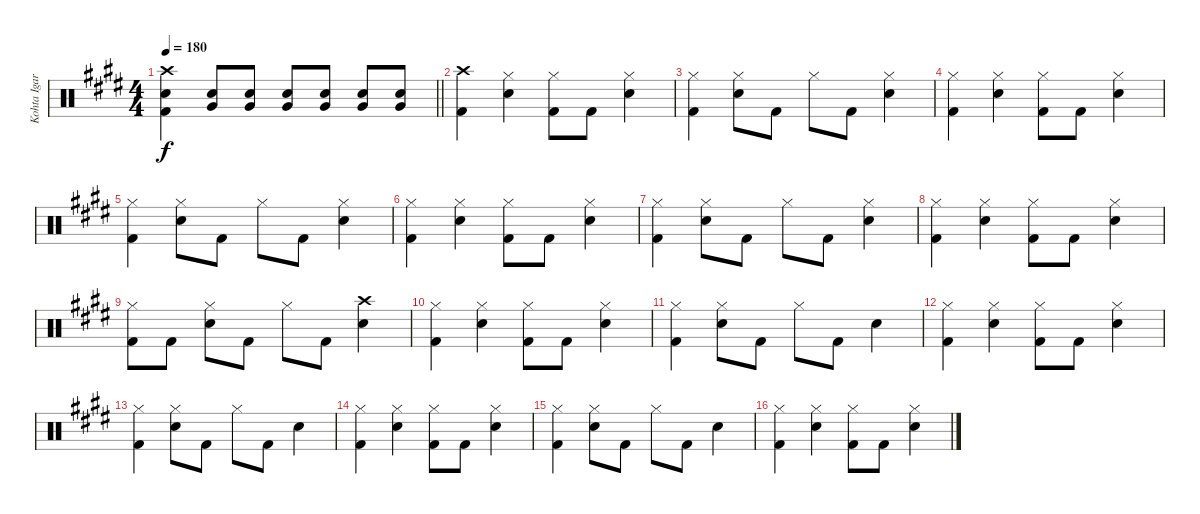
\track ("Kohta Igarashi" "Kohta Igar") {instrument percussion}
\staff {score}
\articulation defaults
\ts (4 4)
\tempo 180
\clef neutral
\barLineRight lightlight
\ks e
("Crash high (hit)" "Electric Snare (hit)" "Kick (hit) 2").4{dy f} ("Electric Snare (hit)" "Very Low Tom (hit)").8 ("Electric Snare (hit)" "Very Low Tom (hit)").8 ("Electric Snare (hit)" "Very Low Tom (hit)").8 ("Electric Snare (hit)" "Very Low Tom (hit)").8 ("Electric Snare (hit)" "Very Low Tom (hit)").8 ("Electric Snare (hit)" "Very Low Tom (hit)").8 |
("Crash high (hit)" "Kick (hit) 2").4 ("Hi-Hat (closed)" "Electric Snare (hit)").4 ("Hi-Hat (closed)" "Kick (hit) 2").8 "Kick (hit) 2".8 ("Hi-Hat (closed)" "Electric Snare (hit)").4 |
("Hi-Hat (closed)" "Kick (hit) 2").4 ("Hi-Hat (closed)" "Electric Snare (hit)").8 "Kick (hit) 2".8 "Hi-Hat (closed)".8 "Kick (hit) 2".8 ("Hi-Hat (closed)" "Electric Snare (hit)").4 |
("Hi-Hat (closed)" "Kick (hit) 2").4 ("Hi-Hat (closed)" "Electric Snare (hit)").4 ("Hi-Hat (closed)" "Kick (hit) 2").8 "Kick (hit) 2".8 ("Hi-Hat (closed)" "Electric Snare (hit)").4 |
("Hi-Hat (closed)" "Kick (hit) 2").4 ("Hi-Hat (closed)" "Electric Snare (hit)").8 "Kick (hit) 2".8 "Hi-Hat (closed)".8 "Kick (hit) 2".8 ("Hi-Hat (closed)" "Electric Snare (hit)").4 |
("Hi-Hat (closed)" "Kick (hit) 2").4 ("Hi-Hat (closed)" "Electric Snare (hit)").4 ("Hi-Hat (closed)" "Kick (hit) 2").8 "Kick (hit) 2".8 ("Hi-Hat (closed)" "Electric Snare (hit)").4 |
("Hi-Hat (closed)" "Kick (hit) 2").4 ("Hi-Hat (closed)" "Electric Snare (hit)").8 "Kick (hit) 2".8 "Hi-Hat (closed)".8 "Kick (hit) 2".8 ("Hi-Hat (closed)" "Electric Snare (hit)").4 |
("Hi-Hat (closed)" "Kick (hit) 2").4 ("Hi-Hat (closed)" "Electric Snare (hit)").4 ("Hi-Hat (closed)" "Kick (hit) 2").8 "Kick (hit) 2".8 ("Hi-Hat (closed)" "Electric Snare (hit)").4 |
("Hi-Hat (closed)" "Kick (hit) 2").8 "Kick (hit) 2".8 ("Hi-Hat (closed)" "Electric Snare (hit)").8 "Kick (hit) 2".8 "Hi-Hat (closed)".8 "Kick (hit) 2".8 ("Crash high (hit)" "Electric Snare (hit)").4 |
("Hi-Hat (closed)" "Kick (hit) 2").4 ("Hi-Hat (closed)" "Electric Snare (hit)").4 ("Hi-Hat (closed)" "Kick (hit) 2").8 "Kick (hit) 2".8 ("Hi-Hat (closed)" "Electric Snare (hit)").4 |
("Hi-Hat (closed)" "Kick (hit) 2").4 ("Hi-Hat (closed)" "Electric Snare (hit)").8 "Kick (hit) 2".8 "Hi-Hat (closed)".8 "Kick (hit) 2".8 "Electric Snare (hit)".4 |
("Hi-Hat (closed)" "Kick (hit) 2").4 ("Hi-Hat (closed)" "Electric Snare (hit)").4 ("Hi-Hat (closed)" "Kick (hit) 2").8 "Kick (hit) 2".8 ("Hi-Hat (closed)" "Electric Snare (hit)").4 |
("Hi-Hat (closed)" "Kick (hit) 2").4 ("Hi-Hat (closed)" "Electric Snare (hit)").8 "Kick (hit) 2".8 "Hi-Hat (closed)".8 "Kick (hit) 2".8 "Electric Snare (hit)".4 |
("Hi-Hat (closed)" "Kick (hit) 2").4 ("Hi-Hat (closed)" "Electric Snare (hit)").4 ("Hi-Hat (closed)" "Kick (hit) 2").8 "Kick (hit) 2".8 ("Hi-Hat (closed)" "Electric Snare (hit)").4 |
("Hi-Hat (closed)" "Kick (hit) 2").4 ("Hi-Hat (closed)" "Electric Snare (hit)").8 "Kick (hit) 2".8 "Hi-Hat (closed)".8 "Kick (hit) 2".8 "Electric Snare (hit)".4 |
("Hi-Hat (closed)" "Kick (hit) 2").4 ("Hi-Hat (closed)" "Electric Snare (hit)").4 ("Hi-Hat (closed)" "Kick (hit) 2").8 "Kick (hit) 2".8 ("Hi-Hat (closed)" "Electric Snare (hit)").4
